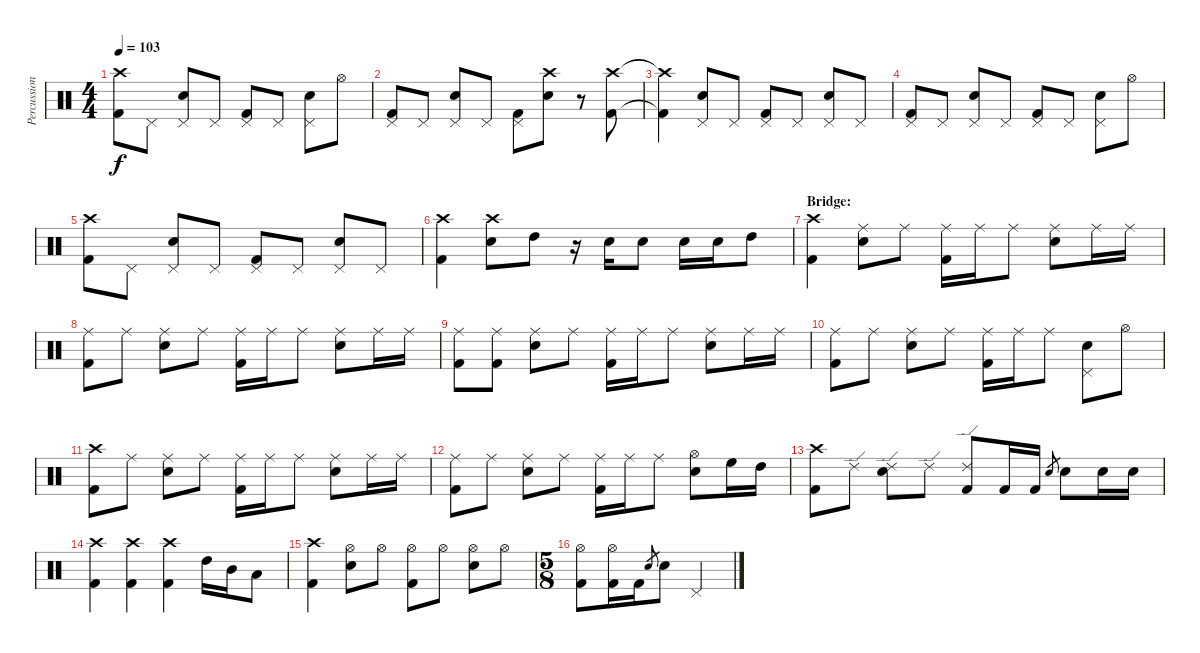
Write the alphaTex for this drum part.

\track ("Percussion" "Percussion") {instrument percussion}
\staff {score}
\articulation defaults
\ts (4 4)
\tempo 103
\clef neutral
\ks c
("Crash high (hit)" "Kick (hit) 2").8{dy f} "Pedal Hi-Hat (hit)".8 ("Pedal Hi-Hat (hit)" "Snare (hit) 2").8 "Pedal Hi-Hat (hit)".8 ("Pedal Hi-Hat (hit)" "Kick (hit) 2").8 "Pedal Hi-Hat (hit)".8 ("Pedal Hi-Hat (hit)" "Snare (hit) 2").8 "Hi-Hat (open)".8 |
("Pedal Hi-Hat (hit)" "Kick (hit) 2").8 "Pedal Hi-Hat (hit)".8 ("Pedal Hi-Hat (hit)" "Snare (hit) 2").8 "Pedal Hi-Hat (hit)".8 ("Pedal Hi-Hat (hit)" "Kick (hit) 2").8 ("Crash high (hit)" "Snare (hit) 2").8 r.8 ("Crash high (hit)" "Kick (hit) 2").8 |
("Crash high (hit)"{t} "Kick (hit) 2"{t}).4 ("Pedal Hi-Hat (hit)" "Snare (hit) 2").8 "Pedal Hi-Hat (hit)".8 ("Pedal Hi-Hat (hit)" "Kick (hit) 2").8 "Pedal Hi-Hat (hit)".8 ("Pedal Hi-Hat (hit)" "Snare (hit) 2").8 "Pedal Hi-Hat (hit)".8 |
("Pedal Hi-Hat (hit)" "Kick (hit) 2").8 "Pedal Hi-Hat (hit)".8 ("Pedal Hi-Hat (hit)" "Snare (hit) 2").8 "Pedal Hi-Hat (hit)".8 ("Pedal Hi-Hat (hit)" "Kick (hit) 2").8 "Pedal Hi-Hat (hit)".8 ("Pedal Hi-Hat (hit)" "Snare (hit) 2").8 "Hi-Hat (open)".8 |
("Crash high (hit)" "Kick (hit) 2").8 "Pedal Hi-Hat (hit)".8 ("Pedal Hi-Hat (hit)" "Snare (hit) 2").8 "Pedal Hi-Hat (hit)".8 ("Pedal Hi-Hat (hit)" "Kick (hit) 2").8 "Pedal Hi-Hat (hit)".8 ("Pedal Hi-Hat (hit)" "Snare (hit) 2").8 "Pedal Hi-Hat (hit)".8 |
("Crash high (hit)" "Kick (hit) 2").4 ("Crash high (hit)" "Snare (hit) 2").8 "High Tom (hit)".8 r.16 "Snare (hit) 2".16 "Snare (hit) 2".8 "Snare (hit) 2".16 "Snare (hit) 2".16 "High Tom (hit)".8 |
\section ("" "Bridge:")
("Crash high (hit)" "Kick (hit) 2").4 ("Ride (middle)" "Snare (hit) 2").8 "Ride (middle)".8 ("Ride (middle)" "Kick (hit) 2").16 "Ride (middle)".16 "Ride (middle)".8 ("Ride (middle)" "Snare (hit) 2").8 "Ride (middle)".16 "Ride (middle)".16 |
("Ride (middle)" "Kick (hit) 2").8 "Ride (middle)".8 ("Ride (middle)" "Snare (hit) 2").8 "Ride (middle)".8 ("Ride (middle)" "Kick (hit) 2").16 "Ride (middle)".16 "Ride (middle)".8 ("Ride (middle)" "Snare (hit) 2").8 "Ride (middle)".16 "Ride (middle)".16 |
("Ride (middle)" "Kick (hit) 2").8 ("Ride (middle)" "Kick (hit) 2").8 ("Ride (middle)" "Snare (hit) 2").8 "Ride (middle)".8 ("Ride (middle)" "Kick (hit) 2").16 "Ride (middle)".16 "Ride (middle)".8 ("Ride (middle)" "Snare (hit) 2").8 "Ride (middle)".16 "Ride (middle)".16 |
("Ride (middle)" "Kick (hit) 2").8 "Ride (middle)".8 ("Ride (middle)" "Snare (hit) 2").8 "Ride (middle)".8 ("Ride (middle)" "Kick (hit) 2").16 "Ride (middle)".16 "Ride (middle)".8 ("Pedal Hi-Hat (hit)" "Snare (hit) 2").8 "Hi-Hat (open)".8 |
("Crash high (hit)" "Kick (hit) 2").8 "Ride (middle)".8 ("Ride (middle)" "Snare (hit) 2").8 "Ride (middle)".8 ("Ride (middle)" "Kick (hit) 2").16 "Ride (middle)".16 "Ride (middle)".8 ("Ride (middle)" "Snare (hit) 2").8 "Ride (middle)".16 "Ride (middle)".16 |
("Ride (middle)" "Kick (hit) 2").8 "Ride (middle)".8 ("Ride (middle)" "Snare (hit) 2").8 "Ride (middle)".8 ("Ride (middle)" "Kick (hit) 2").16 "Ride (middle)".16 "Ride (middle)".8 ("Hi-Hat (open)" "Snare (hit) 2").8 "High Floor Tom (hit)".16 "High Tom (hit)".16 |
("Crash high (hit)" "Kick (hit) 2").8 "Ride (edge) 2".8 ("Ride (edge) 2" "Snare (hit) 2").8 "Ride (edge) 2".8 ("Ride (edge) 2" "Kick (hit) 2").8 "Kick (hit) 2".16 "Kick (hit) 2".16 "Snare (hit) 2".8{gr} "Snare (hit) 2".8 "Snare (hit) 2".16 "Snare (hit) 2".16 |
("Crash high (hit)" "Kick (hit) 2").4 ("Crash high (hit)" "Kick (hit) 2").4 ("Crash high (hit)" "Kick (hit) 2").4 "High Tom (hit)".16 "Mid Tom (hit)".16 "Low Tom (hit)".8 |
("Crash high (hit)" "Kick (hit) 2").4 ("Hi-Hat (open)" "Snare (hit) 2").8 "Hi-Hat (open)".8 ("Hi-Hat (open)" "Kick (hit) 2").8 "Hi-Hat (open)".8 ("Hi-Hat (open)" "Snare (hit) 2").8 "Hi-Hat (open)".8 |
\ts (5 8)
("Hi-Hat (open)" "Kick (hit) 2").8 ("Hi-Hat (open)" "Kick (hit) 2").16 "Kick (hit) 2".16 "Snare (hit) 2".8{gr} "Snare (hit) 2".8 "Pedal Hi-Hat (hit)".4
